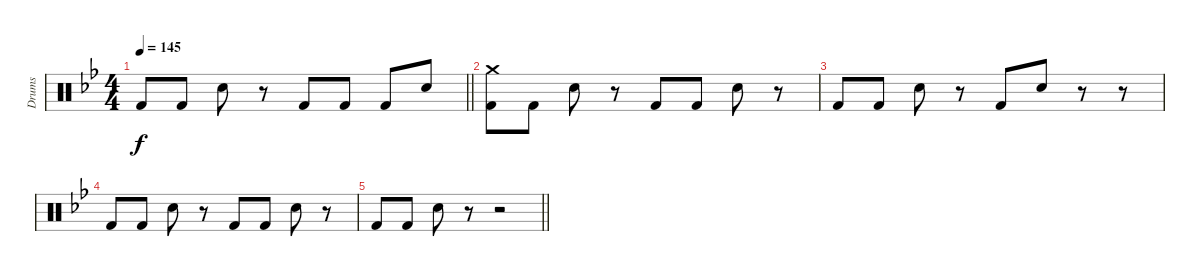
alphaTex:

\track ("Drums" "Drums") {instrument percussion}
\staff {score}
\articulation defaults
\ts (4 4)
\tempo 145
\clef neutral
\barLineRight lightlight
\ks bb "Kick (hit) 2".8{dy f} "Kick (hit) 2".8 "Electric Snare (hit)".8
r.8 "Kick (hit) 2".8 "Kick (hit) 2".8 "Kick (hit) 2".8 "Electric Snare (hit)".8 |
("Crash medium (hit)" "Kick (hit) 2").8 "Kick (hit) 2".8 "Electric Snare (hit)".8 r.8 "Kick (hit) 2".8 "Kick (hit) 2".8 "Electric Snare (hit)".8 r.8 |
"Kick (hit) 2".8 "Kick (hit) 2".8 "Electric Snare (hit)".8 r.8 "Kick (hit) 2".8 "Electric Snare (hit)".8 r.8 r.8 |
"Kick (hit) 2".8 "Kick (hit) 2".8 "Electric Snare (hit)".8 r.8 "Kick (hit) 2".8 "Kick (hit) 2".8 "Electric Snare (hit)".8 r.8 |
\barLineRight lightlight "Kick (hit) 2".8 "Kick (hit) 2".8 "Electric Snare (hit)".8
r.8 r.2
